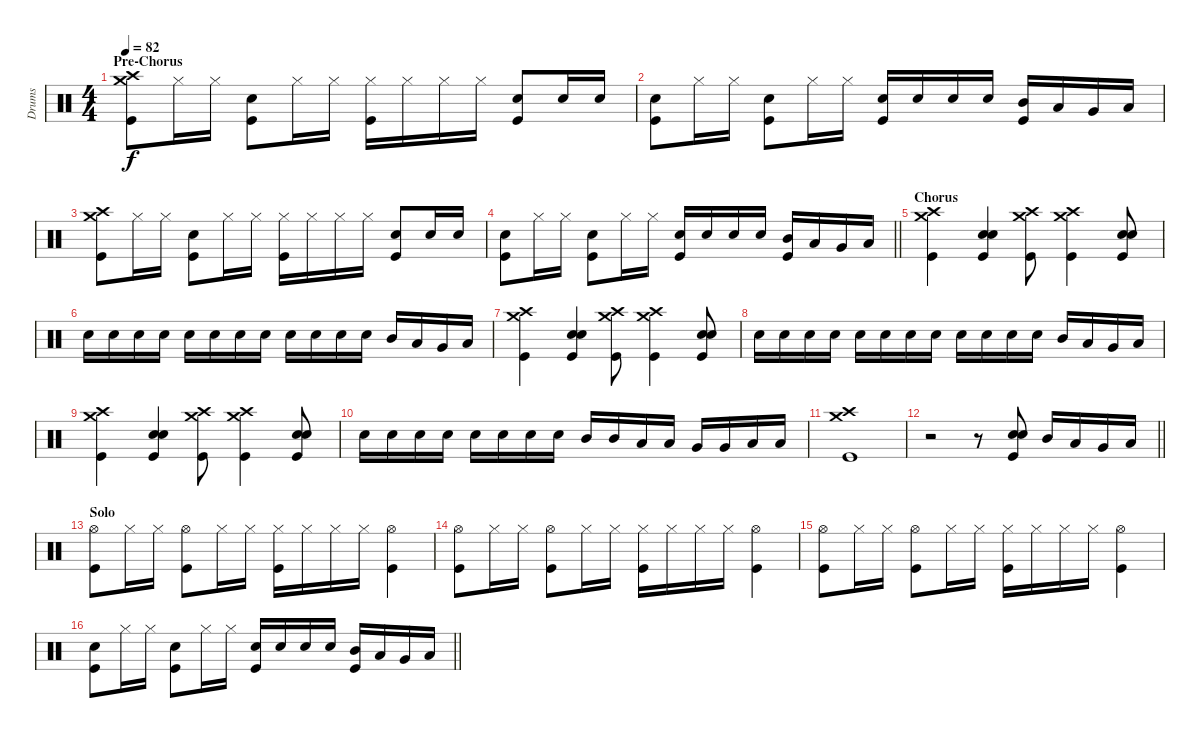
\track ("Drums" "Drums") {instrument percussion}
\staff {score}
\articulation defaults
\ts (4 4)
\section ("" "Pre-Chorus")
\tempo 82
\clef neutral
\ks c
("Crash medium (hit)" "Crash high (hit)" "Kick (hit)").8{dy f} "Hi-Hat (closed)".16 "Hi-Hat (closed)".16 ("Snare (hit) 2" "Kick (hit)").8 "Hi-Hat (closed)".16 "Hi-Hat (closed)".16 ("Hi-Hat (closed)" "Kick (hit)").16 "Hi-Hat (closed)".16 "Hi-Hat (closed)".16 "Hi-Hat (closed)".16 ("Snare (hit) 2" "Kick (hit)").8 "Snare (hit) 2".16 "Snare (hit) 2".16 |
("Snare (hit) 2" "Kick (hit)").8 "Hi-Hat (closed)".16 "Hi-Hat (closed)".16 ("Snare (hit) 2" "Kick (hit)").8 "Hi-Hat (closed)".16 "Hi-Hat (closed)".16 ("Snare (hit) 2" "Kick (hit)").16 "Snare (hit) 2".16 "Snare (hit) 2".16 "Snare (hit) 2".16 ("Mid Tom (hit)" "Kick (hit)").16 "Low Tom (hit)".16 "Very Low Tom (hit)".16 "Low Floor Tom (hit)".16 |
("Crash medium (hit)" "Crash high (hit)" "Kick (hit)").8 "Hi-Hat (closed)".16 "Hi-Hat (closed)".16 ("Snare (hit) 2" "Kick (hit)").8 "Hi-Hat (closed)".16 "Hi-Hat (closed)".16 ("Hi-Hat (closed)" "Kick (hit)").16 "Hi-Hat (closed)".16 "Hi-Hat (closed)".16 "Hi-Hat (closed)".16 ("Snare (hit) 2" "Kick (hit)").8 "Snare (hit) 2".16 "Snare (hit) 2".16 |
\barLineRight lightlight
("Snare (hit) 2" "Kick (hit)").8 "Hi-Hat (closed)".16 "Hi-Hat (closed)".16 ("Snare (hit) 2" "Kick (hit)").8 "Hi-Hat (closed)".16 "Hi-Hat (closed)".16 ("Snare (hit) 2" "Kick (hit)").16 "Snare (hit) 2".16 "Snare (hit) 2".16 "Snare (hit) 2".16 ("Mid Tom (hit)" "Kick (hit)").16 "Low Tom (hit)".16 "Very Low Tom (hit)".16 "Low Floor Tom (hit)".16 |
\section ("" "Chorus")
("Crash medium (hit)" "Crash high (hit)" "Kick (hit)").4 ("Snare (hit) 2" "Snare (hit) 2" "Kick (hit)").4 ("Crash medium (hit)" "Crash high (hit)" "Kick (hit)").8 ("Crash medium (hit)" "Crash high (hit)" "Kick (hit)").4 ("Snare (hit) 2" "Snare (hit) 2" "Kick (hit)").8 |
"Snare (hit) 2".16 "Snare (hit) 2".16 "Snare (hit) 2".16 "Snare (hit) 2".16 "Snare (hit) 2".16 "Snare (hit) 2".16 "Snare (hit) 2".16 "Snare (hit) 2".16 "Snare (hit) 2".16 "Snare (hit) 2".16 "Snare (hit) 2".16 "Snare (hit) 2".16 "Mid Tom (hit)".16 "Low Tom (hit)".16 "Very Low Tom (hit)".16 "Low Floor Tom (hit)".16 |
("Crash medium (hit)" "Crash high (hit)" "Kick (hit)").4 ("Snare (hit) 2" "Snare (hit) 2" "Kick (hit)").4 ("Crash medium (hit)" "Crash high (hit)" "Kick (hit)").8 ("Crash medium (hit)" "Crash high (hit)" "Kick (hit)").4 ("Snare (hit) 2" "Snare (hit) 2" "Kick (hit)").8 |
"Snare (hit) 2".16 "Snare (hit) 2".16 "Snare (hit) 2".16 "Snare (hit) 2".16 "Snare (hit) 2".16 "Snare (hit) 2".16 "Snare (hit) 2".16 "Snare (hit) 2".16 "Snare (hit) 2".16 "Snare (hit) 2".16 "Snare (hit) 2".16 "Snare (hit) 2".16 "Mid Tom (hit)".16 "Low Tom (hit)".16 "Very Low Tom (hit)".16 "Low Floor Tom (hit)".16 |
("Crash medium (hit)" "Crash high (hit)" "Kick (hit)").4 ("Snare (hit) 2" "Snare (hit) 2" "Kick (hit)").4 ("Crash medium (hit)" "Crash high (hit)" "Kick (hit)").8 ("Crash medium (hit)" "Crash high (hit)" "Kick (hit)").4 ("Snare (hit) 2" "Snare (hit) 2" "Kick (hit)").8 |
"Snare (hit) 2".16 "Snare (hit) 2".16 "Snare (hit) 2".16 "Snare (hit) 2".16 "Snare (hit) 2".16 "Snare (hit) 2".16 "Snare (hit) 2".16 "Snare (hit) 2".16 "Mid Tom (hit)".16 "Mid Tom (hit)".16 "Low Tom (hit)".16 "Low Tom (hit)".16 "Very Low Tom (hit)".16 "Very Low Tom (hit)".16 "Low Floor Tom (hit)".16 "Low Floor Tom (hit)".16 |
("Crash medium (hit)" "Crash high (hit)" "Kick (hit)").1 |
\barLineRight lightlight
r.2 r.8 ("Snare (hit) 2" "Snare (hit) 2" "Kick (hit)").8 "Mid Tom (hit)".16 "Low Tom (hit)".16 "Very Low Tom (hit)".16 "Low Floor Tom (hit)".16 |
\section ("" "Solo")
("Hi-Hat (open)" "Kick (hit)").8 "Hi-Hat (closed)".16 "Hi-Hat (closed)".16 ("Hi-Hat (open)" "Kick (hit)").8 "Hi-Hat (closed)".16 "Hi-Hat (closed)".16 ("Hi-Hat (closed)" "Kick (hit)").16 "Hi-Hat (closed)".16 "Hi-Hat (closed)".16 "Hi-Hat (closed)".16 ("Hi-Hat (open)" "Kick (hit)").4 |
("Hi-Hat (open)" "Kick (hit)").8 "Hi-Hat (closed)".16 "Hi-Hat (closed)".16 ("Hi-Hat (open)" "Kick (hit)").8 "Hi-Hat (closed)".16 "Hi-Hat (closed)".16 ("Hi-Hat (closed)" "Kick (hit)").16 "Hi-Hat (closed)".16 "Hi-Hat (closed)".16 "Hi-Hat (closed)".16 ("Hi-Hat (open)" "Kick (hit)").4 |
("Hi-Hat (open)" "Kick (hit)").8 "Hi-Hat (closed)".16 "Hi-Hat (closed)".16 ("Hi-Hat (open)" "Kick (hit)").8 "Hi-Hat (closed)".16 "Hi-Hat (closed)".16 ("Hi-Hat (closed)" "Kick (hit)").16 "Hi-Hat (closed)".16 "Hi-Hat (closed)".16 "Hi-Hat (closed)".16 ("Hi-Hat (open)" "Kick (hit)").4 |
\barLineRight lightlight
("Snare (hit) 2" "Kick (hit)").8 "Hi-Hat (closed)".16 "Hi-Hat (closed)".16 ("Snare (hit) 2" "Kick (hit)").8 "Hi-Hat (closed)".16 "Hi-Hat (closed)".16 ("Snare (hit) 2" "Kick (hit)").16 "Snare (hit) 2".16 "Snare (hit) 2".16 "Snare (hit) 2".16 ("Mid Tom (hit)" "Kick (hit)").16 "Low Tom (hit)".16 "Very Low Tom (hit)".16 "Low Floor Tom (hit)".16
